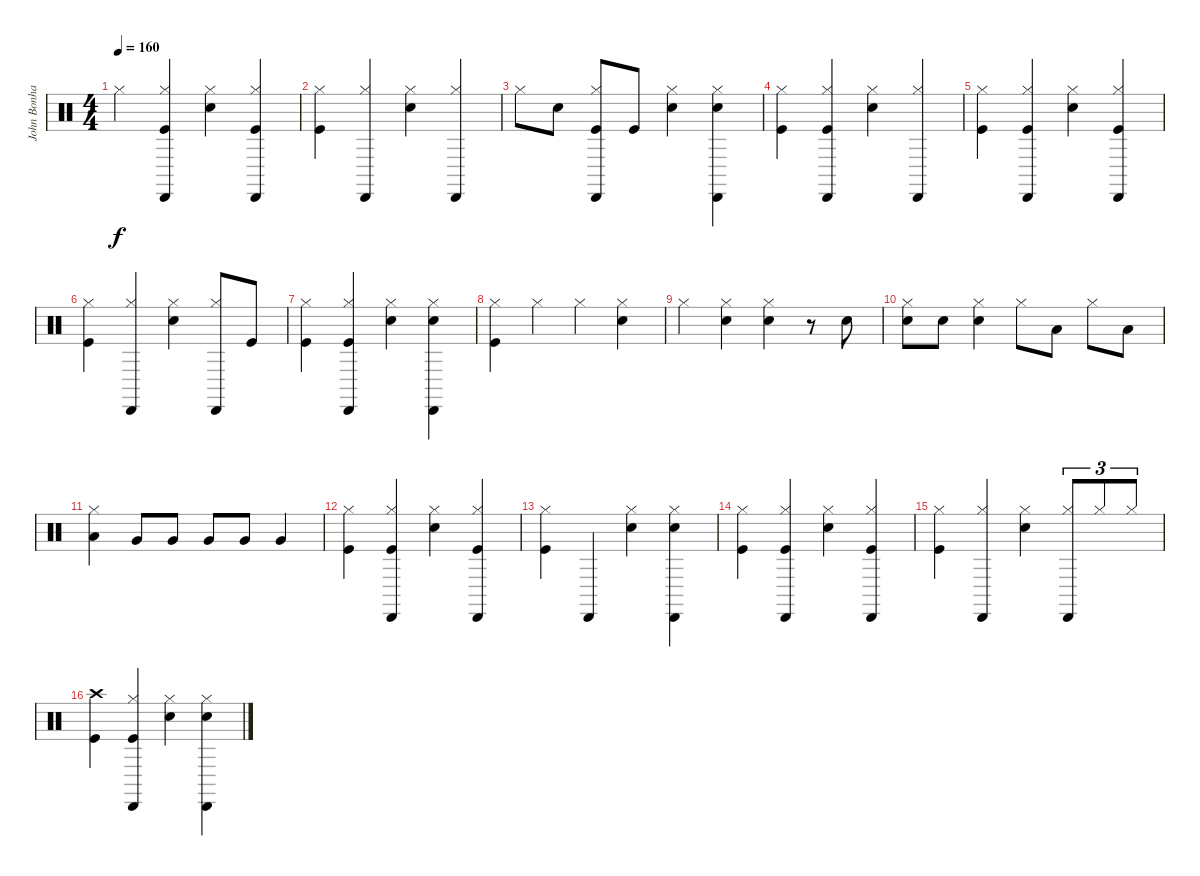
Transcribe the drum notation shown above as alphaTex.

\track ("John Bonham - Drums" "John Bonha") {instrument percussion}
\staff {score}
\articulation defaults
\ts (4 4)
\tempo 160
\clef neutral
\ks c "Hi-Hat (closed)".4{dy f}
("Hi-Hat (closed)" "Kick (hit)" "Cabasa (hit)").4 ("Hi-Hat (closed)" "Snare (hit) 2").4 ("Hi-Hat (closed)" "Kick (hit)" "Cabasa (hit)").4 |
("Kick (hit)" "Hi-Hat (closed)").4 ("Hi-Hat (closed)" "Cabasa (hit)").4 ("Snare (hit) 2" "Hi-Hat (closed)").4 ("Hi-Hat (closed)" "Cabasa (hit)").4 |
"Hi-Hat (closed)".8 "Snare (hit) 2".8 ("Kick (hit)" "Hi-Hat (closed)" "Cabasa (hit)").8 "Kick (hit)".8 ("Snare (hit) 2" "Hi-Hat (closed)").4 ("Snare (hit) 2" "Hi-Hat (closed)" "Cabasa (hit)").4 |
("Kick (hit)" "Hi-Hat (closed)").4 ("Kick (hit)" "Hi-Hat (closed)" "Cabasa (hit)").4 ("Snare (hit) 2" "Hi-Hat (closed)").4 ("Hi-Hat (closed)" "Cabasa (hit)").4 |
("Kick (hit)" "Hi-Hat (closed)").4 ("Kick (hit)" "Hi-Hat (closed)" "Cabasa (hit)").4 ("Snare (hit) 2" "Hi-Hat (closed)").4 ("Kick (hit)" "Hi-Hat (closed)" "Cabasa (hit)").4 |
("Kick (hit)" "Hi-Hat (closed)").4 ("Hi-Hat (closed)" "Cabasa (hit)").4 ("Snare (hit) 2" "Hi-Hat (closed)").4 ("Hi-Hat (closed)" "Cabasa (hit)").8 "Kick (hit)".8 |
("Kick (hit)" "Hi-Hat (closed)").4 ("Kick (hit)" "Hi-Hat (closed)" "Cabasa (hit)").4 ("Snare (hit) 2" "Hi-Hat (closed)").4 ("Snare (hit) 2" "Hi-Hat (closed)" "Cabasa (hit)").4 |
("Kick (hit)" "Hi-Hat (closed)").4 "Hi-Hat (closed)".4 "Hi-Hat (closed)".4 ("Snare (hit) 2" "Hi-Hat (closed)").4 |
"Hi-Hat (closed)".4 ("Snare (hit) 2" "Hi-Hat (closed)").4 ("Snare (hit) 2" "Hi-Hat (closed)").4 r.8 "Snare (hit) 2".8 |
("Snare (hit) 2" "Hi-Hat (closed)").8 "Snare (hit) 2".8 ("Snare (hit) 2" "Hi-Hat (closed)").4 "Hi-Hat (closed)".8 "Low Tom (hit)".8 "Hi-Hat (closed)".8 "Low Tom (hit)".8 |
("Hi-Hat (closed)" "Low Tom (hit)").4 "Very Low Tom (hit)".8 "Very Low Tom (hit)".8 "Very Low Tom (hit)".8 "Very Low Tom (hit)".8 "Very Low Tom (hit)".4 |
("Kick (hit)" "Hi-Hat (closed)").4 ("Kick (hit)" "Hi-Hat (closed)" "Cabasa (hit)").4 ("Snare (hit) 2" "Hi-Hat (closed)").4 ("Kick (hit)" "Hi-Hat (closed)" "Cabasa (hit)").4 |
("Kick (hit)" "Hi-Hat (closed)").4 "Cabasa (hit)".4 ("Snare (hit) 2" "Hi-Hat (closed)").4 ("Snare (hit) 2" "Hi-Hat (closed)" "Cabasa (hit)").4 |
("Kick (hit)" "Hi-Hat (closed)").4 ("Kick (hit)" "Hi-Hat (closed)" "Cabasa (hit)").4 ("Snare (hit) 2" "Hi-Hat (closed)").4 ("Kick (hit)" "Hi-Hat (closed)" "Cabasa (hit)").4 |
("Kick (hit)" "Hi-Hat (closed)").4 ("Hi-Hat (closed)" "Cabasa (hit)").4 ("Snare (hit) 2" "Hi-Hat (closed)").4 ("Hi-Hat (closed)" "Cabasa (hit)").8{tu (3 2)} "Hi-Hat (closed)".8{tu (3 2)} "Hi-Hat (closed)".8{tu (3 2)} |
("Kick (hit)" "Crash high (hit)").4 ("Hi-Hat (closed)" "Kick (hit)" "Cabasa (hit)").4 ("Hi-Hat (closed)" "Snare (hit) 2").4 ("Hi-Hat (closed)" "Snare (hit) 2" "Cabasa (hit)").4
